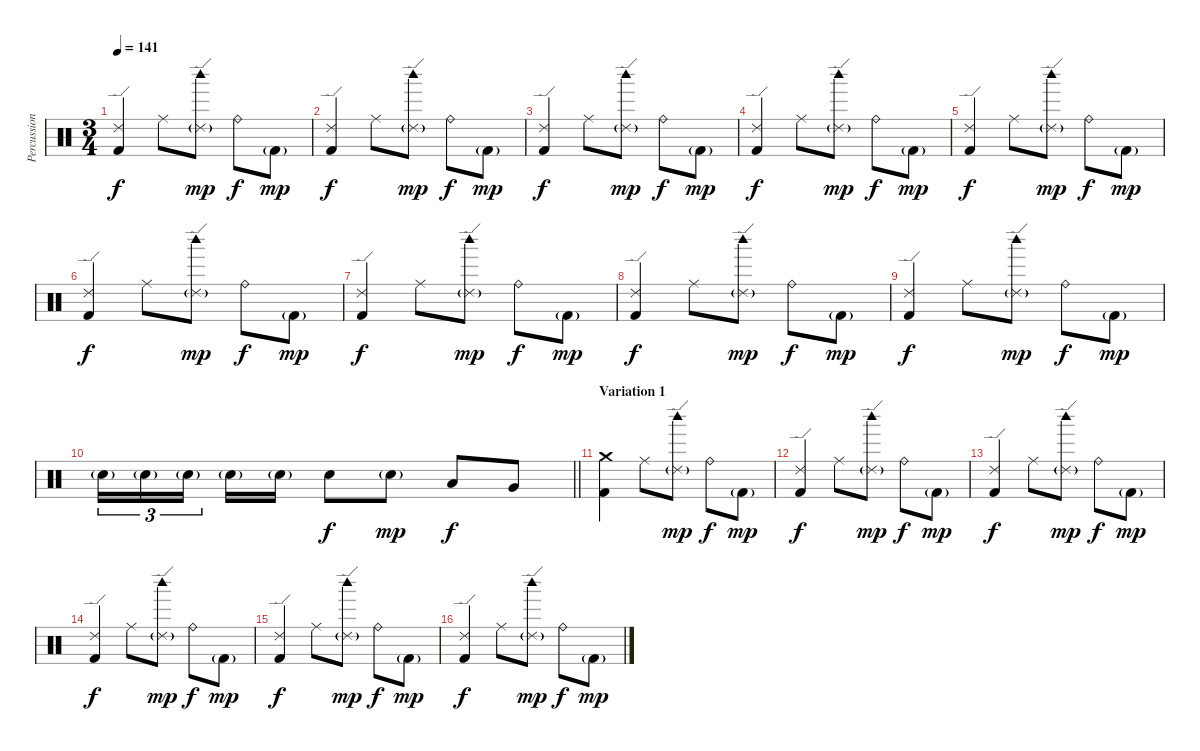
\track ("Percussion" "Percussion") {instrument percussion}
\staff {score}
\articulation defaults
\ts (3 4)
\tempo 141
\clef neutral
\ks c
("Ride (edge) 2" "Kick (hit) 2").4{dy f} "Ride (middle)".8 ("Ride (edge) 2"{g} "Woodblock high (hit)").8{dy mp} "Ride (bell)".8{dy f} "Kick (hit) 2"{g}.8{dy mp} |
("Ride (edge) 2" "Kick (hit) 2").4{dy f} "Ride (middle)".8 ("Ride (edge) 2"{g} "Woodblock high (hit)").8{dy mp} "Ride (bell)".8{dy f} "Kick (hit) 2"{g}.8{dy mp} |
("Ride (edge) 2" "Kick (hit) 2").4{dy f} "Ride (middle)".8 ("Ride (edge) 2"{g} "Woodblock high (hit)").8{dy mp} "Ride (bell)".8{dy f} "Kick (hit) 2"{g}.8{dy mp} |
("Ride (edge) 2" "Kick (hit) 2").4{dy f} "Ride (middle)".8 ("Ride (edge) 2"{g} "Woodblock high (hit)").8{dy mp} "Ride (bell)".8{dy f} "Kick (hit) 2"{g}.8{dy mp} |
("Ride (edge) 2" "Kick (hit) 2").4{dy f} "Ride (middle)".8 ("Ride (edge) 2"{g} "Woodblock high (hit)").8{dy mp} "Ride (bell)".8{dy f} "Kick (hit) 2"{g}.8{dy mp} |
("Ride (edge) 2" "Kick (hit) 2").4{dy f} "Ride (middle)".8 ("Ride (edge) 2"{g} "Woodblock high (hit)").8{dy mp} "Ride (bell)".8{dy f} "Kick (hit) 2"{g}.8{dy mp} |
("Ride (edge) 2" "Kick (hit) 2").4{dy f} "Ride (middle)".8 ("Ride (edge) 2"{g} "Woodblock high (hit)").8{dy mp} "Ride (bell)".8{dy f} "Kick (hit) 2"{g}.8{dy mp} |
("Ride (edge) 2" "Kick (hit) 2").4{dy f} "Ride (middle)".8 ("Ride (edge) 2"{g} "Woodblock high (hit)").8{dy mp} "Ride (bell)".8{dy f} "Kick (hit) 2"{g}.8{dy mp} |
("Ride (edge) 2" "Kick (hit) 2").4{dy f} "Ride (middle)".8 ("Ride (edge) 2"{g} "Woodblock high (hit)").8{dy mp} "Ride (bell)".8{dy f} "Kick (hit) 2"{g}.8{dy mp} |
\barLineRight lightlight "Electric Snare (hit)"{g}.16{tu (3 2)} "Electric Snare (hit)"{g}.16{tu (3 2)} "Electric Snare (hit)"{g}.16{tu (3 2) beam splitsecondary} "Electric Snare (hit)"{g}.16 "Electric Snare (hit)"{g}.16 "Electric Snare (hit)".8{dy f} "Electric Snare (hit)"{g}.8{dy mp} "Low Tom (hit)".8{dy f} "Very Low Tom (hit)".8
|
\section ("" "Variation 1")
("Crash medium (hit)" "Kick (hit) 2").4 "Ride (middle)".8 ("Ride (edge) 2"{g} "Woodblock high (hit)").8{dy mp} "Ride (bell)".8{dy f} "Kick (hit) 2"{g}.8{dy mp} |
("Ride (edge) 2" "Kick (hit) 2").4{dy f} "Ride (middle)".8 ("Ride (edge) 2"{g} "Woodblock high (hit)").8{dy mp} "Ride (bell)".8{dy f} "Kick (hit) 2"{g}.8{dy mp} |
("Ride (edge) 2" "Kick (hit) 2").4{dy f} "Ride (middle)".8 ("Ride (edge) 2"{g} "Woodblock high (hit)").8{dy mp} "Ride (bell)".8{dy f} "Kick (hit) 2"{g}.8{dy mp} |
("Ride (edge) 2" "Kick (hit) 2").4{dy f} "Ride (middle)".8 ("Ride (edge) 2"{g} "Woodblock high (hit)").8{dy mp} "Ride (bell)".8{dy f} "Kick (hit) 2"{g}.8{dy mp} |
("Ride (edge) 2" "Kick (hit) 2").4{dy f} "Ride (middle)".8 ("Ride (edge) 2"{g} "Woodblock high (hit)").8{dy mp} "Ride (bell)".8{dy f} "Kick (hit) 2"{g}.8{dy mp} |
("Ride (edge) 2" "Kick (hit) 2").4{dy f} "Ride (middle)".8 ("Ride (edge) 2"{g} "Woodblock high (hit)").8{dy mp} "Ride (bell)".8{dy f} "Kick (hit) 2"{g}.8{dy mp}
